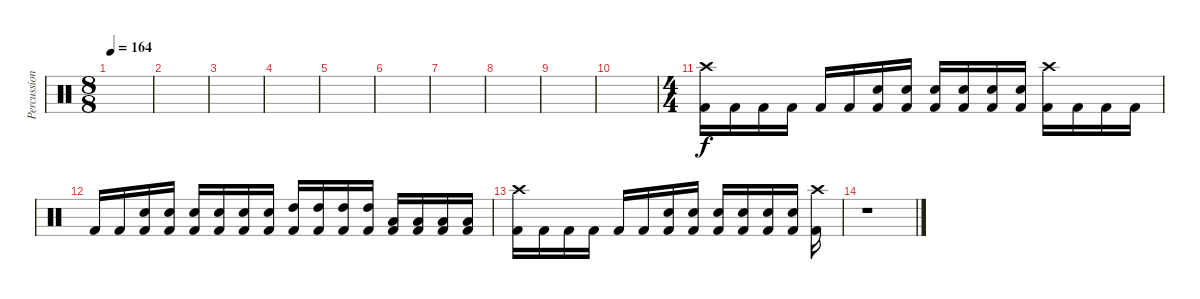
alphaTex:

\track ("Percussion" "Percussion") {instrument percussion}
\staff {score}
\articulation defaults
\ts (8 8)
\tempo 164
\clef neutral
\ks c
|
|
|
|
|
|
|
|
|
|
\ts (4 4)
("Crash high (hit)" "Kick (hit) 2").16 "Kick (hit) 2".16 "Kick (hit) 2".16 "Kick (hit) 2".16 "Kick (hit) 2".16 "Kick (hit) 2".16 ("Snare (hit) 2" "Kick (hit) 2").16 ("Snare (hit) 2" "Kick (hit) 2").16 ("Snare (hit) 2" "Kick (hit) 2").16 ("Snare (hit) 2" "Kick (hit) 2").16 ("Snare (hit) 2" "Kick (hit) 2").16 ("Snare (hit) 2" "Kick (hit) 2").16 ("Crash high (hit)" "Kick (hit) 2").16 "Kick (hit) 2".16 "Kick (hit) 2".16 "Kick (hit) 2".16 |
"Kick (hit) 2".16 "Kick (hit) 2".16 ("Snare (hit) 2" "Kick (hit) 2").16 ("Snare (hit) 2" "Kick (hit) 2").16 ("Snare (hit) 2" "Kick (hit) 2").16 ("Snare (hit) 2" "Kick (hit) 2").16 ("Snare (hit) 2" "Kick (hit) 2").16 ("Snare (hit) 2" "Kick (hit) 2").16 ("High Tom (hit)" "Kick (hit) 2").16 ("High Tom (hit)" "Kick (hit) 2").16 ("High Tom (hit)" "Kick (hit) 2").16 ("High Tom (hit)" "Kick (hit) 2").16 ("Low Tom (hit)" "Kick (hit) 2").16 ("Low Tom (hit)" "Kick (hit) 2").16 ("Low Tom (hit)" "Kick (hit) 2").16 ("Low Tom (hit)" "Kick (hit) 2").16 |
("Crash high (hit)" "Kick (hit) 2").16 "Kick (hit) 2".16 "Kick (hit) 2".16 "Kick (hit) 2".16 "Kick (hit) 2".16 "Kick (hit) 2".16 ("Snare (hit) 2" "Kick (hit) 2").16 ("Snare (hit) 2" "Kick (hit) 2").16 ("Snare (hit) 2" "Kick (hit) 2").16 ("Snare (hit) 2" "Kick (hit) 2").16 ("Snare (hit) 2" "Kick (hit) 2").16 ("Snare (hit) 2" "Kick (hit) 2").16 ("Crash high (hit)" "Kick (hit) 2").16 |
r.1
